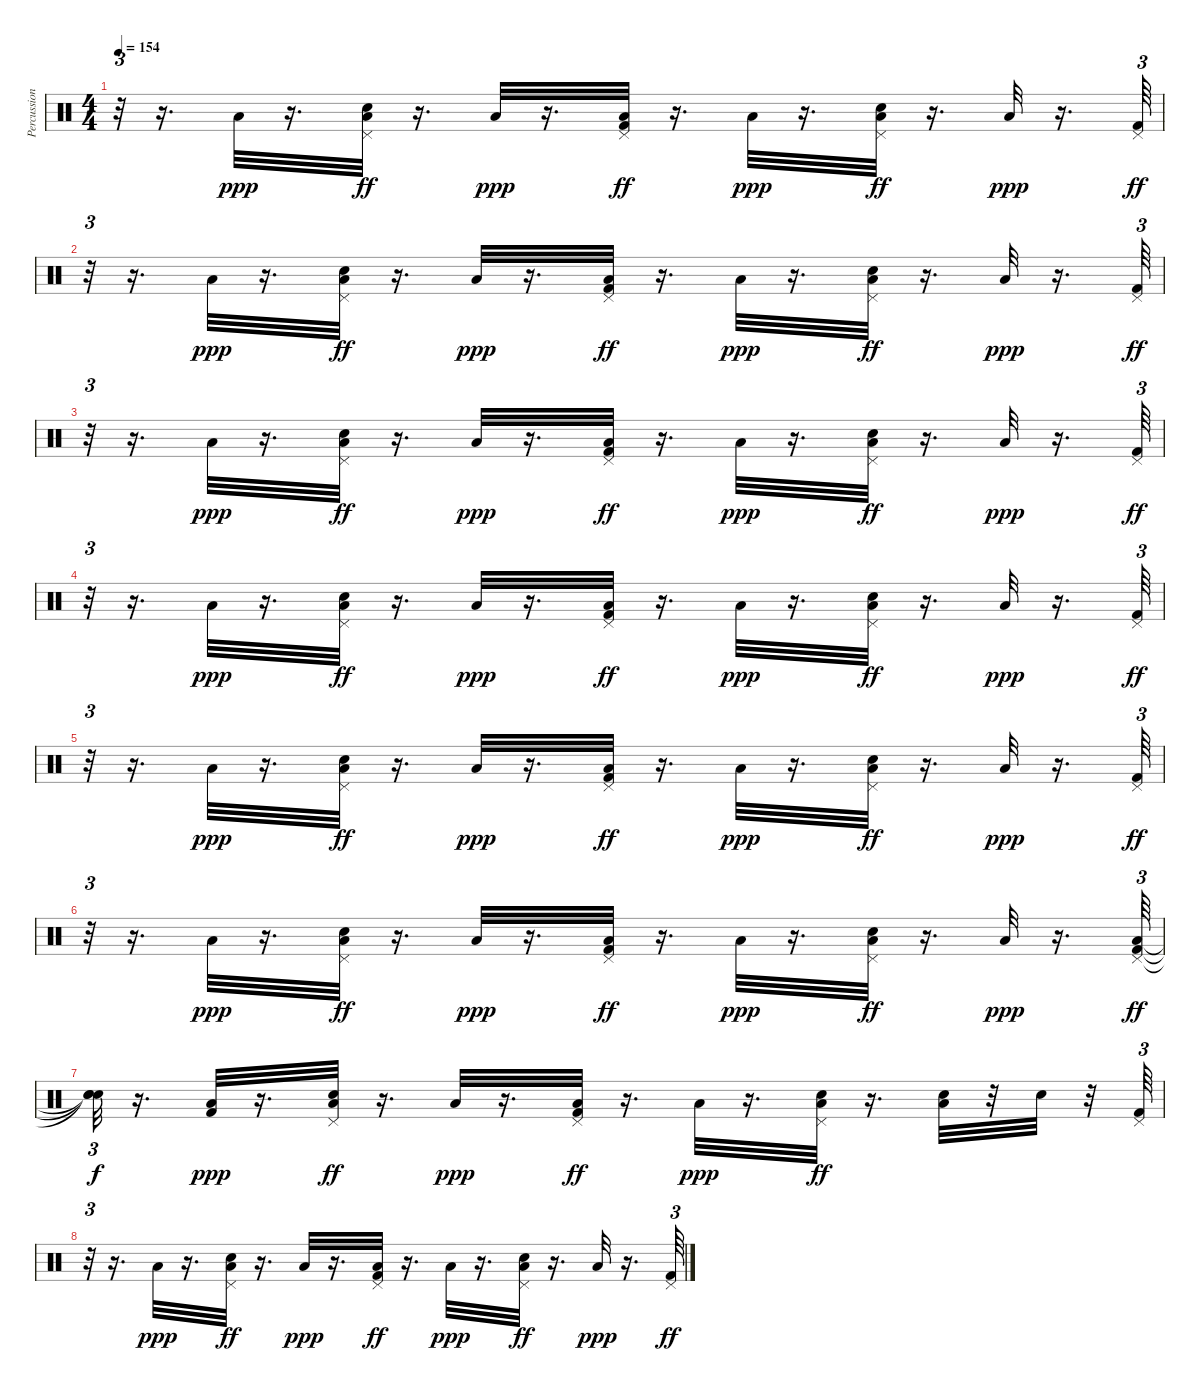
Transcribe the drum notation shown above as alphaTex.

\track ("Percussions" "Percussion") {instrument percussion}
\staff {score}
\articulation defaults
\ts (4 4)
\tempo 154
\clef neutral
\ks c
r.32{tu (3 2) dy ff} r.16{d} "Low Tom (hit)".32{dy ppp} r.16{d} ("Pedal Hi-Hat (hit)" "Low Tom (hit)" "Snare (hit) 2").32{dy ff} r.16{d} "Low Tom (hit)".32{dy ppp} r.16{d} ("Pedal Hi-Hat (hit)" "Low Tom (hit)" "Kick (hit) 2").32{dy ff} r.16{d} "Low Tom (hit)".32{dy ppp} r.16{d} ("Pedal Hi-Hat (hit)" "Low Tom (hit)" "Snare (hit) 2").32{dy ff} r.16{d} "Low Tom (hit)".32{dy ppp} r.16{d} ("Pedal Hi-Hat (hit)" "Kick (hit) 2").64{tu (3 2) dy ff} |
r.32{tu (3 2)} r.16{d} "Low Tom (hit)".32{dy ppp} r.16{d} ("Pedal Hi-Hat (hit)" "Low Tom (hit)" "Snare (hit) 2").32{dy ff} r.16{d} "Low Tom (hit)".32{dy ppp} r.16{d} ("Pedal Hi-Hat (hit)" "Low Tom (hit)" "Kick (hit) 2").32{dy ff} r.16{d} "Low Tom (hit)".32{dy ppp} r.16{d} ("Pedal Hi-Hat (hit)" "Low Tom (hit)" "Snare (hit) 2").32{dy ff} r.16{d} "Low Tom (hit)".32{dy ppp} r.16{d} ("Pedal Hi-Hat (hit)" "Kick (hit) 2").64{tu (3 2) dy ff} |
r.32{tu (3 2)} r.16{d} "Low Tom (hit)".32{dy ppp} r.16{d} ("Pedal Hi-Hat (hit)" "Low Tom (hit)" "Snare (hit) 2").32{dy ff} r.16{d} "Low Tom (hit)".32{dy ppp} r.16{d} ("Pedal Hi-Hat (hit)" "Low Tom (hit)" "Kick (hit) 2").32{dy ff} r.16{d} "Low Tom (hit)".32{dy ppp} r.16{d} ("Pedal Hi-Hat (hit)" "Low Tom (hit)" "Snare (hit) 2").32{dy ff} r.16{d} "Low Tom (hit)".32{dy ppp} r.16{d} ("Pedal Hi-Hat (hit)" "Kick (hit) 2").64{tu (3 2) dy ff} |
r.32{tu (3 2)} r.16{d} "Low Tom (hit)".32{dy ppp} r.16{d} ("Pedal Hi-Hat (hit)" "Low Tom (hit)" "Snare (hit) 2").32{dy ff} r.16{d} "Low Tom (hit)".32{dy ppp} r.16{d} ("Pedal Hi-Hat (hit)" "Low Tom (hit)" "Kick (hit) 2").32{dy ff} r.16{d} "Low Tom (hit)".32{dy ppp} r.16{d} ("Pedal Hi-Hat (hit)" "Low Tom (hit)" "Snare (hit) 2").32{dy ff} r.16{d} "Low Tom (hit)".32{dy ppp} r.16{d} ("Pedal Hi-Hat (hit)" "Kick (hit) 2").64{tu (3 2) dy ff} |
r.32{tu (3 2)} r.16{d} "Low Tom (hit)".32{dy ppp} r.16{d} ("Pedal Hi-Hat (hit)" "Low Tom (hit)" "Snare (hit) 2").32{dy ff} r.16{d} "Low Tom (hit)".32{dy ppp} r.16{d} ("Pedal Hi-Hat (hit)" "Low Tom (hit)" "Kick (hit) 2").32{dy ff} r.16{d} "Low Tom (hit)".32{dy ppp} r.16{d} ("Pedal Hi-Hat (hit)" "Low Tom (hit)" "Snare (hit) 2").32{dy ff} r.16{d} "Low Tom (hit)".32{dy ppp} r.16{d} ("Pedal Hi-Hat (hit)" "Kick (hit) 2").64{tu (3 2) dy ff} |
r.32{tu (3 2)} r.16{d} "Low Tom (hit)".32{dy ppp} r.16{d} ("Pedal Hi-Hat (hit)" "Low Tom (hit)" "Snare (hit) 2").32{dy ff} r.16{d} "Low Tom (hit)".32{dy ppp} r.16{d} ("Pedal Hi-Hat (hit)" "Low Tom (hit)" "Kick (hit) 2").32{dy ff} r.16{d} "Low Tom (hit)".32{dy ppp} r.16{d} ("Pedal Hi-Hat (hit)" "Low Tom (hit)" "Snare (hit) 2").32{dy ff} r.16{d} "Low Tom (hit)".32{dy ppp} r.16{d} ("Pedal Hi-Hat (hit)" "Low Tom (hit)" "Kick (hit) 2").64{tu (3 2) dy ff} |
("Snare (hit)"{t} "Snare (hit)"{t} "Snare (hit)"{t}).32{tu (3 2) dy f} r.16{d} ("Low Tom (hit)" "Kick (hit) 2").32{dy ppp} r.16{d} ("Pedal Hi-Hat (hit)" "Low Tom (hit)" "Snare (hit) 2").32{dy ff} r.16{d} "Low Tom (hit)".32{dy ppp} r.16{d} ("Pedal Hi-Hat (hit)" "Low Tom (hit)" "Kick (hit) 2").32{dy ff} r.16{d} "Low Tom (hit)".32{dy ppp} r.16{d} ("Pedal Hi-Hat (hit)" "Low Tom (hit)" "Snare (hit) 2").32{dy ff} r.16{d} ("Low Tom (hit)" "Snare (hit) 2").32 r.32 "Snare (hit) 2".32 r.32 ("Pedal Hi-Hat (hit)" "Kick (hit) 2").64{tu (3 2)} |
r.32{tu (3 2)} r.16{d} "Low Tom (hit)".32{dy ppp} r.16{d} ("Pedal Hi-Hat (hit)" "Low Tom (hit)" "Snare (hit) 2").32{dy ff} r.16{d} "Low Tom (hit)".32{dy ppp} r.16{d} ("Pedal Hi-Hat (hit)" "Low Tom (hit)" "Kick (hit) 2").32{dy ff} r.16{d} "Low Tom (hit)".32{dy ppp} r.16{d} ("Pedal Hi-Hat (hit)" "Low Tom (hit)" "Snare (hit) 2").32{dy ff} r.16{d} "Low Tom (hit)".32{dy ppp} r.16{d} ("Pedal Hi-Hat (hit)" "Kick (hit) 2").64{tu (3 2) dy ff}
